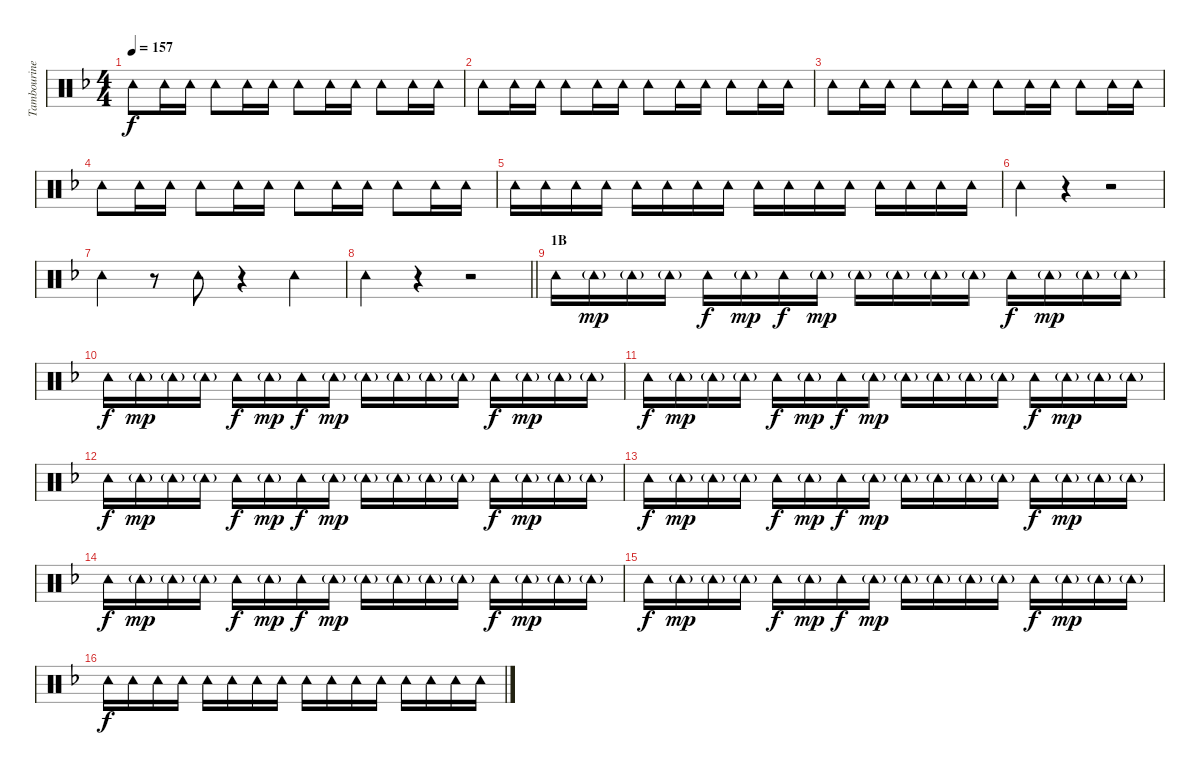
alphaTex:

\track ("Tambourine" "Tambourine") {instrument percussion}
\staff {score}
\articulation defaults
\ts (4 4)
\tempo 157
\clef neutral
\ks f "Tambourine (hit)".8{dy f} "Tambourine (hit)".16 "Tambourine (hit)".16 "Tambourine (hit)".8 "Tambourine (hit)".16 "Tambourine (hit)".16 "Tambourine (hit)".8 "Tambourine (hit)".16 "Tambourine (hit)".16 "Tambourine (hit)".8 "Tambourine (hit)".16 "Tambourine (hit)".16
|
"Tambourine (hit)".8 "Tambourine (hit)".16 "Tambourine (hit)".16 "Tambourine (hit)".8 "Tambourine (hit)".16 "Tambourine (hit)".16 "Tambourine (hit)".8 "Tambourine (hit)".16 "Tambourine (hit)".16 "Tambourine (hit)".8 "Tambourine (hit)".16 "Tambourine (hit)".16 |
"Tambourine (hit)".8 "Tambourine (hit)".16 "Tambourine (hit)".16 "Tambourine (hit)".8 "Tambourine (hit)".16 "Tambourine (hit)".16 "Tambourine (hit)".8 "Tambourine (hit)".16 "Tambourine (hit)".16 "Tambourine (hit)".8 "Tambourine (hit)".16 "Tambourine (hit)".16 |
"Tambourine (hit)".8 "Tambourine (hit)".16 "Tambourine (hit)".16 "Tambourine (hit)".8 "Tambourine (hit)".16 "Tambourine (hit)".16 "Tambourine (hit)".8 "Tambourine (hit)".16 "Tambourine (hit)".16 "Tambourine (hit)".8 "Tambourine (hit)".16 "Tambourine (hit)".16 |
"Tambourine (hit)".16 "Tambourine (hit)".16 "Tambourine (hit)".16 "Tambourine (hit)".16 "Tambourine (hit)".16 "Tambourine (hit)".16 "Tambourine (hit)".16 "Tambourine (hit)".16 "Tambourine (hit)".16 "Tambourine (hit)".16 "Tambourine (hit)".16 "Tambourine (hit)".16 "Tambourine (hit)".16 "Tambourine (hit)".16 "Tambourine (hit)".16 "Tambourine (hit)".16 |
"Tambourine (hit)".4 r.4 r.2 |
"Tambourine (hit)".4 r.8 "Tambourine (hit)".8 r.4 "Tambourine (hit)".4 |
\barLineRight lightlight "Tambourine (hit)".4
r.4 r.2 |
\section ("" "1B")
"Tambourine (hit)".16 "Tambourine (hit)"{g}.16{dy mp} "Tambourine (hit)"{g}.16 "Tambourine (hit)"{g}.16 "Tambourine (hit)".16{dy f} "Tambourine (hit)"{g}.16{dy mp} "Tambourine (hit)".16{dy f} "Tambourine (hit)"{g}.16{dy mp} "Tambourine (hit)"{g}.16 "Tambourine (hit)"{g}.16 "Tambourine (hit)"{g}.16 "Tambourine (hit)"{g}.16 "Tambourine (hit)".16{dy f} "Tambourine (hit)"{g}.16{dy mp} "Tambourine (hit)"{g}.16 "Tambourine (hit)"{g}.16 |
"Tambourine (hit)".16{dy f} "Tambourine (hit)"{g}.16{dy mp} "Tambourine (hit)"{g}.16 "Tambourine (hit)"{g}.16 "Tambourine (hit)".16{dy f} "Tambourine (hit)"{g}.16{dy mp} "Tambourine (hit)".16{dy f} "Tambourine (hit)"{g}.16{dy mp} "Tambourine (hit)"{g}.16 "Tambourine (hit)"{g}.16 "Tambourine (hit)"{g}.16 "Tambourine (hit)"{g}.16 "Tambourine (hit)".16{dy f} "Tambourine (hit)"{g}.16{dy mp} "Tambourine (hit)"{g}.16 "Tambourine (hit)"{g}.16 |
"Tambourine (hit)".16{dy f} "Tambourine (hit)"{g}.16{dy mp} "Tambourine (hit)"{g}.16 "Tambourine (hit)"{g}.16 "Tambourine (hit)".16{dy f} "Tambourine (hit)"{g}.16{dy mp} "Tambourine (hit)".16{dy f} "Tambourine (hit)"{g}.16{dy mp} "Tambourine (hit)"{g}.16 "Tambourine (hit)"{g}.16 "Tambourine (hit)"{g}.16 "Tambourine (hit)"{g}.16 "Tambourine (hit)".16{dy f} "Tambourine (hit)"{g}.16{dy mp} "Tambourine (hit)"{g}.16 "Tambourine (hit)"{g}.16 |
"Tambourine (hit)".16{dy f} "Tambourine (hit)"{g}.16{dy mp} "Tambourine (hit)"{g}.16 "Tambourine (hit)"{g}.16 "Tambourine (hit)".16{dy f} "Tambourine (hit)"{g}.16{dy mp} "Tambourine (hit)".16{dy f} "Tambourine (hit)"{g}.16{dy mp} "Tambourine (hit)"{g}.16 "Tambourine (hit)"{g}.16 "Tambourine (hit)"{g}.16 "Tambourine (hit)"{g}.16 "Tambourine (hit)".16{dy f} "Tambourine (hit)"{g}.16{dy mp} "Tambourine (hit)"{g}.16 "Tambourine (hit)"{g}.16 |
"Tambourine (hit)".16{dy f} "Tambourine (hit)"{g}.16{dy mp} "Tambourine (hit)"{g}.16 "Tambourine (hit)"{g}.16 "Tambourine (hit)".16{dy f} "Tambourine (hit)"{g}.16{dy mp} "Tambourine (hit)".16{dy f} "Tambourine (hit)"{g}.16{dy mp} "Tambourine (hit)"{g}.16 "Tambourine (hit)"{g}.16 "Tambourine (hit)"{g}.16 "Tambourine (hit)"{g}.16 "Tambourine (hit)".16{dy f} "Tambourine (hit)"{g}.16{dy mp} "Tambourine (hit)"{g}.16 "Tambourine (hit)"{g}.16 |
"Tambourine (hit)".16{dy f} "Tambourine (hit)"{g}.16{dy mp} "Tambourine (hit)"{g}.16 "Tambourine (hit)"{g}.16 "Tambourine (hit)".16{dy f} "Tambourine (hit)"{g}.16{dy mp} "Tambourine (hit)".16{dy f} "Tambourine (hit)"{g}.16{dy mp} "Tambourine (hit)"{g}.16 "Tambourine (hit)"{g}.16 "Tambourine (hit)"{g}.16 "Tambourine (hit)"{g}.16 "Tambourine (hit)".16{dy f} "Tambourine (hit)"{g}.16{dy mp} "Tambourine (hit)"{g}.16 "Tambourine (hit)"{g}.16 |
"Tambourine (hit)".16{dy f} "Tambourine (hit)"{g}.16{dy mp} "Tambourine (hit)"{g}.16 "Tambourine (hit)"{g}.16 "Tambourine (hit)".16{dy f} "Tambourine (hit)"{g}.16{dy mp} "Tambourine (hit)".16{dy f} "Tambourine (hit)"{g}.16{dy mp} "Tambourine (hit)"{g}.16 "Tambourine (hit)"{g}.16 "Tambourine (hit)"{g}.16 "Tambourine (hit)"{g}.16 "Tambourine (hit)".16{dy f} "Tambourine (hit)"{g}.16{dy mp} "Tambourine (hit)"{g}.16 "Tambourine (hit)"{g}.16 |
"Tambourine (hit)".16{dy f} "Tambourine (hit)".16 "Tambourine (hit)".16 "Tambourine (hit)".16 "Tambourine (hit)".16 "Tambourine (hit)".16 "Tambourine (hit)".16 "Tambourine (hit)".16 "Tambourine (hit)".16 "Tambourine (hit)".16 "Tambourine (hit)".16 "Tambourine (hit)".16 "Tambourine (hit)".16 "Tambourine (hit)".16 "Tambourine (hit)".16 "Tambourine (hit)".16
